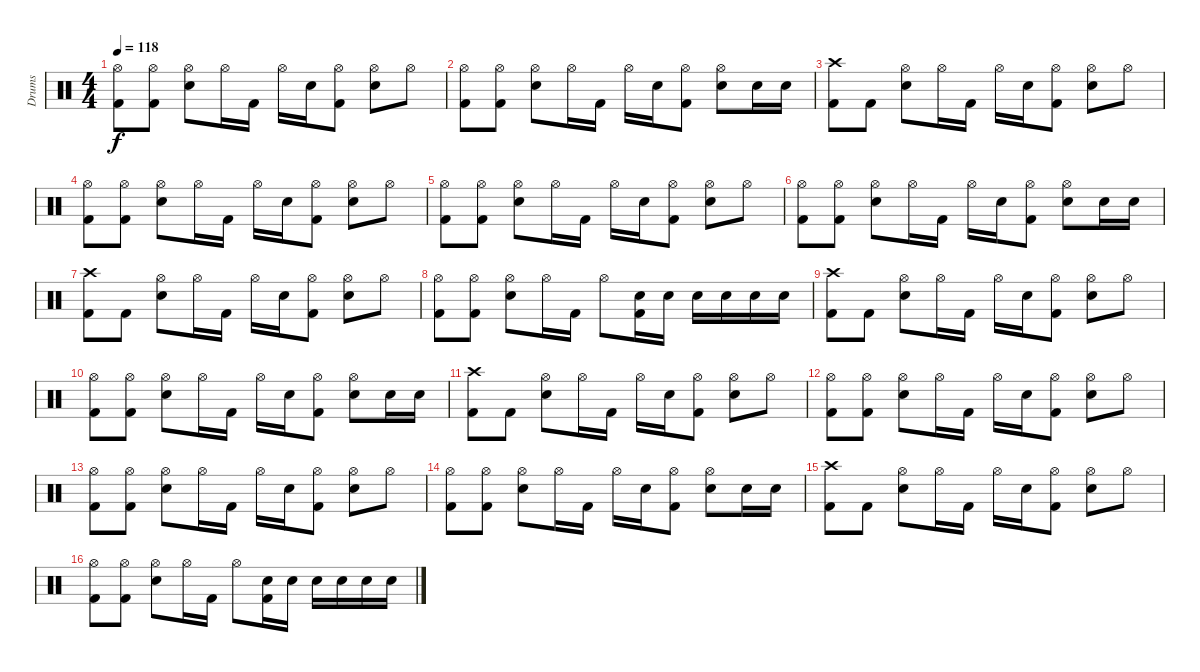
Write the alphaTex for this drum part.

\track ("Drums" "Drums") {instrument percussion}
\staff {score}
\articulation defaults
\ts (4 4)
\tempo 118
\clef neutral
\ks c
("Hi-Hat (open)" "Kick (hit) 2").8{dy f} ("Hi-Hat (open)" "Kick (hit) 2").8 ("Hi-Hat (open)" "Electric Snare (hit)").8 "Hi-Hat (open)".16 "Kick (hit) 2".16 "Hi-Hat (open)".16 "Electric Snare (hit)".16 ("Hi-Hat (open)" "Kick (hit) 2").8 ("Hi-Hat (open)" "Electric Snare (hit)").8 "Hi-Hat (open)".8 |
("Hi-Hat (open)" "Kick (hit) 2").8 ("Hi-Hat (open)" "Kick (hit) 2").8 ("Hi-Hat (open)" "Electric Snare (hit)").8 "Hi-Hat (open)".16 "Kick (hit) 2".16 "Hi-Hat (open)".16 "Electric Snare (hit)".16 ("Hi-Hat (open)" "Kick (hit) 2").8 ("Hi-Hat (open)" "Electric Snare (hit)").8 "Electric Snare (hit)".16 "Electric Snare (hit)".16 |
("Crash high (hit)" "Kick (hit) 2").8 "Kick (hit) 2".8 ("Hi-Hat (open)" "Electric Snare (hit)").8 "Hi-Hat (open)".16 "Kick (hit) 2".16 "Hi-Hat (open)".16 "Electric Snare (hit)".16 ("Hi-Hat (open)" "Kick (hit) 2").8 ("Hi-Hat (open)" "Electric Snare (hit)").8 "Hi-Hat (open)".8 |
("Hi-Hat (open)" "Kick (hit) 2").8 ("Hi-Hat (open)" "Kick (hit) 2").8 ("Hi-Hat (open)" "Electric Snare (hit)").8 "Hi-Hat (open)".16 "Kick (hit) 2".16 "Hi-Hat (open)".16 "Electric Snare (hit)".16 ("Hi-Hat (open)" "Kick (hit) 2").8 ("Hi-Hat (open)" "Electric Snare (hit)").8 "Hi-Hat (open)".8 |
("Hi-Hat (open)" "Kick (hit) 2").8 ("Hi-Hat (open)" "Kick (hit) 2").8 ("Hi-Hat (open)" "Electric Snare (hit)").8 "Hi-Hat (open)".16 "Kick (hit) 2".16 "Hi-Hat (open)".16 "Electric Snare (hit)".16 ("Hi-Hat (open)" "Kick (hit) 2").8 ("Hi-Hat (open)" "Electric Snare (hit)").8 "Hi-Hat (open)".8 |
("Hi-Hat (open)" "Kick (hit) 2").8 ("Hi-Hat (open)" "Kick (hit) 2").8 ("Hi-Hat (open)" "Electric Snare (hit)").8 "Hi-Hat (open)".16 "Kick (hit) 2".16 "Hi-Hat (open)".16 "Electric Snare (hit)".16 ("Hi-Hat (open)" "Kick (hit) 2").8 ("Hi-Hat (open)" "Electric Snare (hit)").8 "Electric Snare (hit)".16 "Electric Snare (hit)".16 |
("Crash high (hit)" "Kick (hit) 2").8 "Kick (hit) 2".8 ("Hi-Hat (open)" "Electric Snare (hit)").8 "Hi-Hat (open)".16 "Kick (hit) 2".16 "Hi-Hat (open)".16 "Electric Snare (hit)".16 ("Hi-Hat (open)" "Kick (hit) 2").8 ("Hi-Hat (open)" "Electric Snare (hit)").8 "Hi-Hat (open)".8 |
("Hi-Hat (open)" "Kick (hit) 2").8 ("Hi-Hat (open)" "Kick (hit) 2").8 ("Hi-Hat (open)" "Electric Snare (hit)").8 "Hi-Hat (open)".16 "Kick (hit) 2".16 "Hi-Hat (open)".8 ("Electric Snare (hit)" "Kick (hit) 2").16 "Electric Snare (hit)".16 "Electric Snare (hit)".16 "Electric Snare (hit)".16 "Electric Snare (hit)".16 "Electric Snare (hit)".16 |
("Crash high (hit)" "Kick (hit) 2").8 "Kick (hit) 2".8 ("Hi-Hat (open)" "Electric Snare (hit)").8 "Hi-Hat (open)".16 "Kick (hit) 2".16 "Hi-Hat (open)".16 "Electric Snare (hit)".16 ("Hi-Hat (open)" "Kick (hit) 2").8 ("Hi-Hat (open)" "Electric Snare (hit)").8 "Hi-Hat (open)".8 |
("Hi-Hat (open)" "Kick (hit) 2").8 ("Hi-Hat (open)" "Kick (hit) 2").8 ("Hi-Hat (open)" "Electric Snare (hit)").8 "Hi-Hat (open)".16 "Kick (hit) 2".16 "Hi-Hat (open)".16 "Electric Snare (hit)".16 ("Hi-Hat (open)" "Kick (hit) 2").8 ("Hi-Hat (open)" "Electric Snare (hit)").8 "Electric Snare (hit)".16 "Electric Snare (hit)".16 |
("Crash high (hit)" "Kick (hit) 2").8 "Kick (hit) 2".8 ("Hi-Hat (open)" "Electric Snare (hit)").8 "Hi-Hat (open)".16 "Kick (hit) 2".16 "Hi-Hat (open)".16 "Electric Snare (hit)".16 ("Hi-Hat (open)" "Kick (hit) 2").8 ("Hi-Hat (open)" "Electric Snare (hit)").8 "Hi-Hat (open)".8 |
("Hi-Hat (open)" "Kick (hit) 2").8 ("Hi-Hat (open)" "Kick (hit) 2").8 ("Hi-Hat (open)" "Electric Snare (hit)").8 "Hi-Hat (open)".16 "Kick (hit) 2".16 "Hi-Hat (open)".16 "Electric Snare (hit)".16 ("Hi-Hat (open)" "Kick (hit) 2").8 ("Hi-Hat (open)" "Electric Snare (hit)").8 "Hi-Hat (open)".8 |
("Hi-Hat (open)" "Kick (hit) 2").8 ("Hi-Hat (open)" "Kick (hit) 2").8 ("Hi-Hat (open)" "Electric Snare (hit)").8 "Hi-Hat (open)".16 "Kick (hit) 2".16 "Hi-Hat (open)".16 "Electric Snare (hit)".16 ("Hi-Hat (open)" "Kick (hit) 2").8 ("Hi-Hat (open)" "Electric Snare (hit)").8 "Hi-Hat (open)".8 |
("Hi-Hat (open)" "Kick (hit) 2").8 ("Hi-Hat (open)" "Kick (hit) 2").8 ("Hi-Hat (open)" "Electric Snare (hit)").8 "Hi-Hat (open)".16 "Kick (hit) 2".16 "Hi-Hat (open)".16 "Electric Snare (hit)".16 ("Hi-Hat (open)" "Kick (hit) 2").8 ("Hi-Hat (open)" "Electric Snare (hit)").8 "Electric Snare (hit)".16 "Electric Snare (hit)".16 |
("Crash high (hit)" "Kick (hit) 2").8 "Kick (hit) 2".8 ("Hi-Hat (open)" "Electric Snare (hit)").8 "Hi-Hat (open)".16 "Kick (hit) 2".16 "Hi-Hat (open)".16 "Electric Snare (hit)".16 ("Hi-Hat (open)" "Kick (hit) 2").8 ("Hi-Hat (open)" "Electric Snare (hit)").8 "Hi-Hat (open)".8 |
("Hi-Hat (open)" "Kick (hit) 2").8 ("Hi-Hat (open)" "Kick (hit) 2").8 ("Hi-Hat (open)" "Electric Snare (hit)").8 "Hi-Hat (open)".16 "Kick (hit) 2".16 "Hi-Hat (open)".8 ("Electric Snare (hit)" "Kick (hit) 2").16 "Electric Snare (hit)".16 "Electric Snare (hit)".16 "Electric Snare (hit)".16 "Electric Snare (hit)".16 "Electric Snare (hit)".16
